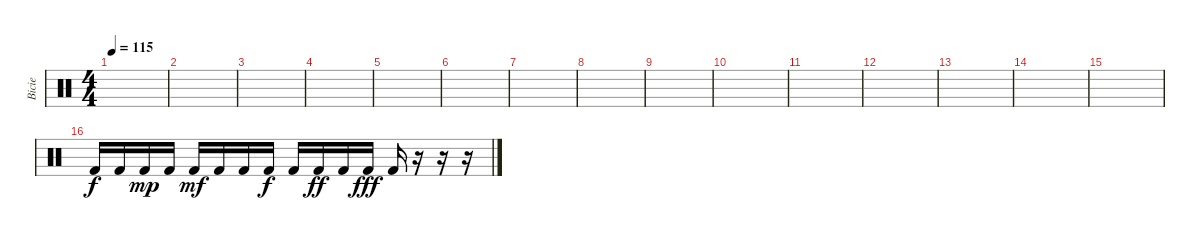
\track ("Bicie" "Bicie") {instrument percussion}
\staff {score}
\articulation defaults
\ts (4 4)
\tempo 115
\clef neutral
\ks c
|
|
|
|
|
|
|
|
|
|
|
|
|
|
|
"Kick (hit) 2".16 "Kick (hit) 2".16 "Kick (hit) 2".16{dy mp} "Kick (hit) 2".16 "Kick (hit) 2".16{dy mf} "Kick (hit) 2".16 "Kick (hit) 2".16 "Kick (hit) 2".16{dy f} "Kick (hit) 2".16 "Kick (hit) 2".16{dy ff} "Kick (hit) 2".16 "Kick (hit) 2".16{dy fff} "Kick (hit) 2".16 r.16 r.16 r.16
